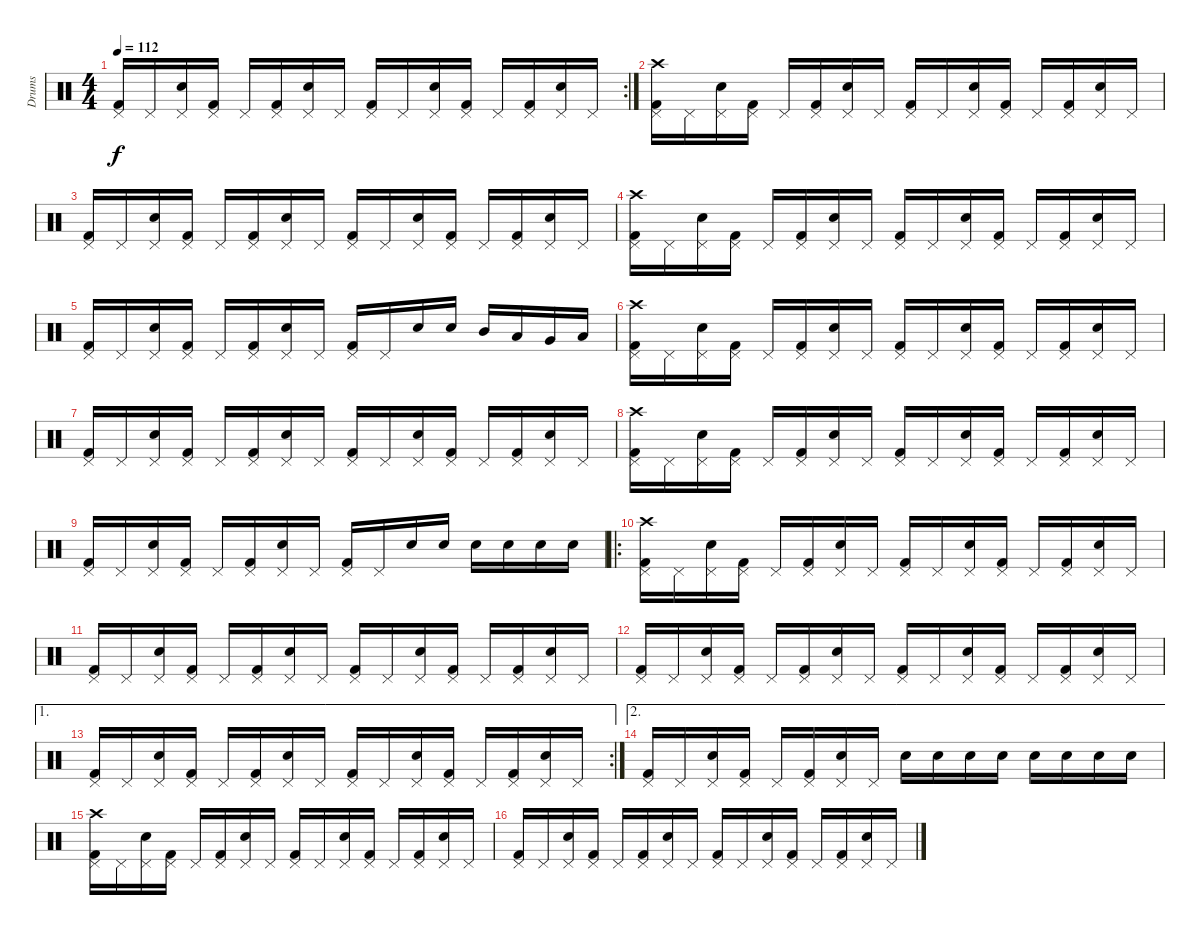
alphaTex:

\track ("Drums" "Drums") {instrument percussion}
\staff {score}
\articulation defaults
\rc 2
\ts (4 4)
\tempo 112
\clef neutral
\ks c
("Kick (hit) 2" "Pedal Hi-Hat (hit)").16{dy f} "Pedal Hi-Hat (hit)".16 ("Snare (hit) 2" "Pedal Hi-Hat (hit)").16 ("Kick (hit) 2" "Pedal Hi-Hat (hit)").16 "Pedal Hi-Hat (hit)".16 ("Kick (hit) 2" "Pedal Hi-Hat (hit)").16 ("Snare (hit) 2" "Pedal Hi-Hat (hit)").16 "Pedal Hi-Hat (hit)".16 ("Kick (hit) 2" "Pedal Hi-Hat (hit)").16 "Pedal Hi-Hat (hit)".16 ("Snare (hit) 2" "Pedal Hi-Hat (hit)").16 ("Kick (hit) 2" "Pedal Hi-Hat (hit)").16 "Pedal Hi-Hat (hit)".16 ("Kick (hit) 2" "Pedal Hi-Hat (hit)").16 ("Snare (hit) 2" "Pedal Hi-Hat (hit)").16 "Pedal Hi-Hat (hit)".16 |
("Kick (hit) 2" "Pedal Hi-Hat (hit)" "Crash high (hit)").16 "Pedal Hi-Hat (hit)".16 ("Snare (hit) 2" "Pedal Hi-Hat (hit)").16 ("Kick (hit) 2" "Pedal Hi-Hat (hit)").16 "Pedal Hi-Hat (hit)".16 ("Kick (hit) 2" "Pedal Hi-Hat (hit)").16 ("Snare (hit) 2" "Pedal Hi-Hat (hit)").16 "Pedal Hi-Hat (hit)".16 ("Kick (hit) 2" "Pedal Hi-Hat (hit)").16 "Pedal Hi-Hat (hit)".16 ("Snare (hit) 2" "Pedal Hi-Hat (hit)").16 ("Kick (hit) 2" "Pedal Hi-Hat (hit)").16 "Pedal Hi-Hat (hit)".16 ("Kick (hit) 2" "Pedal Hi-Hat (hit)").16 ("Snare (hit) 2" "Pedal Hi-Hat (hit)").16 "Pedal Hi-Hat (hit)".16 |
("Kick (hit) 2" "Pedal Hi-Hat (hit)").16 "Pedal Hi-Hat (hit)".16 ("Snare (hit) 2" "Pedal Hi-Hat (hit)").16 ("Kick (hit) 2" "Pedal Hi-Hat (hit)").16 "Pedal Hi-Hat (hit)".16 ("Kick (hit) 2" "Pedal Hi-Hat (hit)").16 ("Snare (hit) 2" "Pedal Hi-Hat (hit)").16 "Pedal Hi-Hat (hit)".16 ("Kick (hit) 2" "Pedal Hi-Hat (hit)").16 "Pedal Hi-Hat (hit)".16 ("Snare (hit) 2" "Pedal Hi-Hat (hit)").16 ("Kick (hit) 2" "Pedal Hi-Hat (hit)").16 "Pedal Hi-Hat (hit)".16 ("Kick (hit) 2" "Pedal Hi-Hat (hit)").16 ("Snare (hit) 2" "Pedal Hi-Hat (hit)").16 "Pedal Hi-Hat (hit)".16 |
("Kick (hit) 2" "Pedal Hi-Hat (hit)" "Crash high (hit)").16 "Pedal Hi-Hat (hit)".16 ("Snare (hit) 2" "Pedal Hi-Hat (hit)").16 ("Kick (hit) 2" "Pedal Hi-Hat (hit)").16 "Pedal Hi-Hat (hit)".16 ("Kick (hit) 2" "Pedal Hi-Hat (hit)").16 ("Snare (hit) 2" "Pedal Hi-Hat (hit)").16 "Pedal Hi-Hat (hit)".16 ("Kick (hit) 2" "Pedal Hi-Hat (hit)").16 "Pedal Hi-Hat (hit)".16 ("Snare (hit) 2" "Pedal Hi-Hat (hit)").16 ("Kick (hit) 2" "Pedal Hi-Hat (hit)").16 "Pedal Hi-Hat (hit)".16 ("Kick (hit) 2" "Pedal Hi-Hat (hit)").16 ("Snare (hit) 2" "Pedal Hi-Hat (hit)").16 "Pedal Hi-Hat (hit)".16 |
("Kick (hit) 2" "Pedal Hi-Hat (hit)").16 "Pedal Hi-Hat (hit)".16 ("Snare (hit) 2" "Pedal Hi-Hat (hit)").16 ("Kick (hit) 2" "Pedal Hi-Hat (hit)").16 "Pedal Hi-Hat (hit)".16 ("Kick (hit) 2" "Pedal Hi-Hat (hit)").16 ("Snare (hit) 2" "Pedal Hi-Hat (hit)").16 "Pedal Hi-Hat (hit)".16 ("Kick (hit) 2" "Pedal Hi-Hat (hit)").16 "Pedal Hi-Hat (hit)".16 "Snare (hit) 2".16 "Snare (hit) 2".16 "Mid Tom (hit)".16 "Low Tom (hit)".16 "Very Low Tom (hit)".16 "Low Floor Tom (hit)".16 |
("Kick (hit) 2" "Pedal Hi-Hat (hit)" "Crash high (hit)").16 "Pedal Hi-Hat (hit)".16 ("Snare (hit) 2" "Pedal Hi-Hat (hit)").16 ("Kick (hit) 2" "Pedal Hi-Hat (hit)").16 "Pedal Hi-Hat (hit)".16 ("Kick (hit) 2" "Pedal Hi-Hat (hit)").16 ("Snare (hit) 2" "Pedal Hi-Hat (hit)").16 "Pedal Hi-Hat (hit)".16 ("Kick (hit) 2" "Pedal Hi-Hat (hit)").16 "Pedal Hi-Hat (hit)".16 ("Snare (hit) 2" "Pedal Hi-Hat (hit)").16 ("Kick (hit) 2" "Pedal Hi-Hat (hit)").16 "Pedal Hi-Hat (hit)".16 ("Kick (hit) 2" "Pedal Hi-Hat (hit)").16 ("Snare (hit) 2" "Pedal Hi-Hat (hit)").16 "Pedal Hi-Hat (hit)".16 |
("Kick (hit) 2" "Pedal Hi-Hat (hit)").16 "Pedal Hi-Hat (hit)".16 ("Snare (hit) 2" "Pedal Hi-Hat (hit)").16 ("Kick (hit) 2" "Pedal Hi-Hat (hit)").16 "Pedal Hi-Hat (hit)".16 ("Kick (hit) 2" "Pedal Hi-Hat (hit)").16 ("Snare (hit) 2" "Pedal Hi-Hat (hit)").16 "Pedal Hi-Hat (hit)".16 ("Kick (hit) 2" "Pedal Hi-Hat (hit)").16 "Pedal Hi-Hat (hit)".16 ("Snare (hit) 2" "Pedal Hi-Hat (hit)").16 ("Kick (hit) 2" "Pedal Hi-Hat (hit)").16 "Pedal Hi-Hat (hit)".16 ("Kick (hit) 2" "Pedal Hi-Hat (hit)").16 ("Snare (hit) 2" "Pedal Hi-Hat (hit)").16 "Pedal Hi-Hat (hit)".16 |
("Kick (hit) 2" "Pedal Hi-Hat (hit)" "Crash high (hit)").16 "Pedal Hi-Hat (hit)".16 ("Snare (hit) 2" "Pedal Hi-Hat (hit)").16 ("Kick (hit) 2" "Pedal Hi-Hat (hit)").16 "Pedal Hi-Hat (hit)".16 ("Kick (hit) 2" "Pedal Hi-Hat (hit)").16 ("Snare (hit) 2" "Pedal Hi-Hat (hit)").16 "Pedal Hi-Hat (hit)".16 ("Kick (hit) 2" "Pedal Hi-Hat (hit)").16 "Pedal Hi-Hat (hit)".16 ("Snare (hit) 2" "Pedal Hi-Hat (hit)").16 ("Kick (hit) 2" "Pedal Hi-Hat (hit)").16 "Pedal Hi-Hat (hit)".16 ("Kick (hit) 2" "Pedal Hi-Hat (hit)").16 ("Snare (hit) 2" "Pedal Hi-Hat (hit)").16 "Pedal Hi-Hat (hit)".16 |
("Kick (hit) 2" "Pedal Hi-Hat (hit)").16 "Pedal Hi-Hat (hit)".16 ("Snare (hit) 2" "Pedal Hi-Hat (hit)").16 ("Kick (hit) 2" "Pedal Hi-Hat (hit)").16 "Pedal Hi-Hat (hit)".16 ("Kick (hit) 2" "Pedal Hi-Hat (hit)").16 ("Snare (hit) 2" "Pedal Hi-Hat (hit)").16 "Pedal Hi-Hat (hit)".16 ("Kick (hit) 2" "Pedal Hi-Hat (hit)").16 "Pedal Hi-Hat (hit)".16 "Snare (hit) 2".16 "Snare (hit) 2".16 "Snare (hit) 2".16 "Snare (hit) 2".16 "Snare (hit) 2".16 "Snare (hit) 2".16 |
\ro
("Kick (hit) 2" "Pedal Hi-Hat (hit)" "Crash high (hit)").16 "Pedal Hi-Hat (hit)".16 ("Snare (hit) 2" "Pedal Hi-Hat (hit)").16 ("Kick (hit) 2" "Pedal Hi-Hat (hit)").16 "Pedal Hi-Hat (hit)".16 ("Kick (hit) 2" "Pedal Hi-Hat (hit)").16 ("Snare (hit) 2" "Pedal Hi-Hat (hit)").16 "Pedal Hi-Hat (hit)".16 ("Kick (hit) 2" "Pedal Hi-Hat (hit)").16 "Pedal Hi-Hat (hit)".16 ("Snare (hit) 2" "Pedal Hi-Hat (hit)").16 ("Kick (hit) 2" "Pedal Hi-Hat (hit)").16 "Pedal Hi-Hat (hit)".16 ("Kick (hit) 2" "Pedal Hi-Hat (hit)").16 ("Snare (hit) 2" "Pedal Hi-Hat (hit)").16 "Pedal Hi-Hat (hit)".16 |
("Kick (hit) 2" "Pedal Hi-Hat (hit)").16 "Pedal Hi-Hat (hit)".16 ("Snare (hit) 2" "Pedal Hi-Hat (hit)").16 ("Kick (hit) 2" "Pedal Hi-Hat (hit)").16 "Pedal Hi-Hat (hit)".16 ("Kick (hit) 2" "Pedal Hi-Hat (hit)").16 ("Snare (hit) 2" "Pedal Hi-Hat (hit)").16 "Pedal Hi-Hat (hit)".16 ("Kick (hit) 2" "Pedal Hi-Hat (hit)").16 "Pedal Hi-Hat (hit)".16 ("Snare (hit) 2" "Pedal Hi-Hat (hit)").16 ("Kick (hit) 2" "Pedal Hi-Hat (hit)").16 "Pedal Hi-Hat (hit)".16 ("Kick (hit) 2" "Pedal Hi-Hat (hit)").16 ("Snare (hit) 2" "Pedal Hi-Hat (hit)").16 "Pedal Hi-Hat (hit)".16 |
("Kick (hit) 2" "Pedal Hi-Hat (hit)").16 "Pedal Hi-Hat (hit)".16 ("Snare (hit) 2" "Pedal Hi-Hat (hit)").16 ("Kick (hit) 2" "Pedal Hi-Hat (hit)").16 "Pedal Hi-Hat (hit)".16 ("Kick (hit) 2" "Pedal Hi-Hat (hit)").16 ("Snare (hit) 2" "Pedal Hi-Hat (hit)").16 "Pedal Hi-Hat (hit)".16 ("Kick (hit) 2" "Pedal Hi-Hat (hit)").16 "Pedal Hi-Hat (hit)".16 ("Snare (hit) 2" "Pedal Hi-Hat (hit)").16 ("Kick (hit) 2" "Pedal Hi-Hat (hit)").16 "Pedal Hi-Hat (hit)".16 ("Kick (hit) 2" "Pedal Hi-Hat (hit)").16 ("Snare (hit) 2" "Pedal Hi-Hat (hit)").16 "Pedal Hi-Hat (hit)".16 |
\ae 1
\rc 2
("Kick (hit) 2" "Pedal Hi-Hat (hit)").16 "Pedal Hi-Hat (hit)".16 ("Snare (hit) 2" "Pedal Hi-Hat (hit)").16 ("Kick (hit) 2" "Pedal Hi-Hat (hit)").16 "Pedal Hi-Hat (hit)".16 ("Kick (hit) 2" "Pedal Hi-Hat (hit)").16 ("Snare (hit) 2" "Pedal Hi-Hat (hit)").16 "Pedal Hi-Hat (hit)".16 ("Kick (hit) 2" "Pedal Hi-Hat (hit)").16 "Pedal Hi-Hat (hit)".16 ("Snare (hit) 2" "Pedal Hi-Hat (hit)").16 ("Kick (hit) 2" "Pedal Hi-Hat (hit)").16 "Pedal Hi-Hat (hit)".16 ("Kick (hit) 2" "Pedal Hi-Hat (hit)").16 ("Snare (hit) 2" "Pedal Hi-Hat (hit)").16 "Pedal Hi-Hat (hit)".16 |
\ae 2
("Kick (hit) 2" "Pedal Hi-Hat (hit)").16 "Pedal Hi-Hat (hit)".16 ("Snare (hit) 2" "Pedal Hi-Hat (hit)").16 ("Kick (hit) 2" "Pedal Hi-Hat (hit)").16 "Pedal Hi-Hat (hit)".16 ("Kick (hit) 2" "Pedal Hi-Hat (hit)").16 ("Snare (hit) 2" "Pedal Hi-Hat (hit)").16 "Pedal Hi-Hat (hit)".16 "Snare (hit) 2".16 "Snare (hit) 2".16 "Snare (hit) 2".16 "Snare (hit) 2".16 "Snare (hit) 2".16 "Snare (hit) 2".16 "Snare (hit) 2".16 "Snare (hit) 2".16 |
("Kick (hit) 2" "Pedal Hi-Hat (hit)" "Crash high (hit)").16 "Pedal Hi-Hat (hit)".16 ("Snare (hit) 2" "Pedal Hi-Hat (hit)").16 ("Kick (hit) 2" "Pedal Hi-Hat (hit)").16 "Pedal Hi-Hat (hit)".16 ("Kick (hit) 2" "Pedal Hi-Hat (hit)").16 ("Snare (hit) 2" "Pedal Hi-Hat (hit)").16 "Pedal Hi-Hat (hit)".16 ("Kick (hit) 2" "Pedal Hi-Hat (hit)").16 "Pedal Hi-Hat (hit)".16 ("Snare (hit) 2" "Pedal Hi-Hat (hit)").16 ("Kick (hit) 2" "Pedal Hi-Hat (hit)").16 "Pedal Hi-Hat (hit)".16 ("Kick (hit) 2" "Pedal Hi-Hat (hit)").16 ("Snare (hit) 2" "Pedal Hi-Hat (hit)").16 "Pedal Hi-Hat (hit)".16 |
("Kick (hit) 2" "Pedal Hi-Hat (hit)").16 "Pedal Hi-Hat (hit)".16 ("Snare (hit) 2" "Pedal Hi-Hat (hit)").16 ("Kick (hit) 2" "Pedal Hi-Hat (hit)").16 "Pedal Hi-Hat (hit)".16 ("Kick (hit) 2" "Pedal Hi-Hat (hit)").16 ("Snare (hit) 2" "Pedal Hi-Hat (hit)").16 "Pedal Hi-Hat (hit)".16 ("Kick (hit) 2" "Pedal Hi-Hat (hit)").16 "Pedal Hi-Hat (hit)".16 ("Snare (hit) 2" "Pedal Hi-Hat (hit)").16 ("Kick (hit) 2" "Pedal Hi-Hat (hit)").16 "Pedal Hi-Hat (hit)".16 ("Kick (hit) 2" "Pedal Hi-Hat (hit)").16 ("Snare (hit) 2" "Pedal Hi-Hat (hit)").16 "Pedal Hi-Hat (hit)".16
